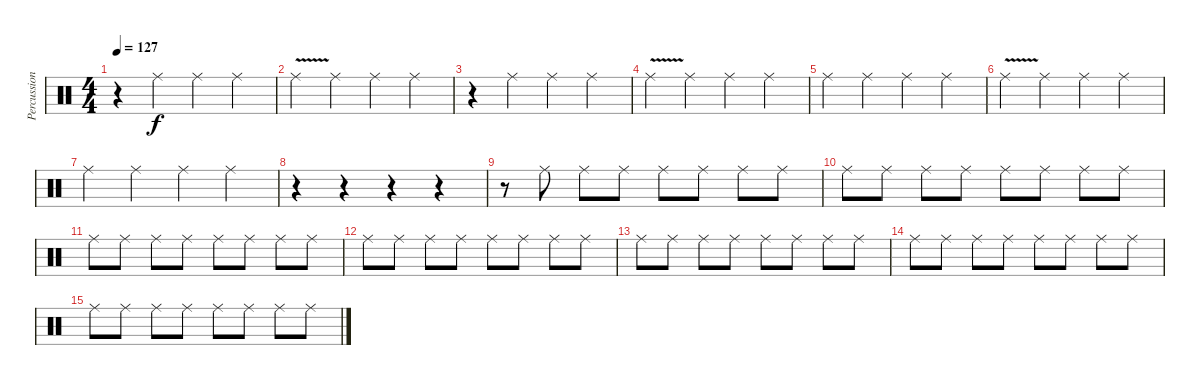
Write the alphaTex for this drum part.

\track ("Percussion" "Percussion") {instrument percussion}
\staff {score}
\articulation defaults
\ts (4 4)
\tempo 127
\clef neutral
\ks c
r.4{dy f} "Ride (middle)".4 "Ride (middle)".4 "Ride (middle)".4 |
"Ride (middle)"{v}.4 "Ride (middle)".4 "Ride (middle)".4 "Ride (middle)".4 |
r.4 "Ride (middle)".4 "Ride (middle)".4 "Ride (middle)".4 |
"Ride (middle)"{v}.4 "Ride (middle)".4 "Ride (middle)".4 "Ride (middle)".4 |
"Ride (middle)".4 "Ride (middle)".4 "Ride (middle)".4 "Ride (middle)".4 |
"Ride (middle)"{v}.4 "Ride (middle)".4 "Ride (middle)".4 "Ride (middle)".4 |
"Ride (middle)".4 "Ride (middle)".4 "Ride (middle)".4 "Ride (middle)".4 |
r.4 r.4 r.4 r.4 |
r.8 "Ride (middle)".8 "Ride (middle)".8 "Ride (middle)".8 "Ride (middle)".8 "Ride (middle)".8 "Ride (middle)".8 "Ride (middle)".8 |
"Ride (middle)".8 "Ride (middle)".8 "Ride (middle)".8 "Ride (middle)".8 "Ride (middle)".8 "Ride (middle)".8 "Ride (middle)".8 "Ride (middle)".8 |
"Ride (middle)".8 "Ride (middle)".8 "Ride (middle)".8 "Ride (middle)".8 "Ride (middle)".8 "Ride (middle)".8 "Ride (middle)".8 "Ride (middle)".8 |
"Ride (middle)".8 "Ride (middle)".8 "Ride (middle)".8 "Ride (middle)".8 "Ride (middle)".8 "Ride (middle)".8 "Ride (middle)".8 "Ride (middle)".8 |
"Ride (middle)".8 "Ride (middle)".8 "Ride (middle)".8 "Ride (middle)".8 "Ride (middle)".8 "Ride (middle)".8 "Ride (middle)".8 "Ride (middle)".8 |
"Ride (middle)".8 "Ride (middle)".8 "Ride (middle)".8 "Ride (middle)".8 "Ride (middle)".8 "Ride (middle)".8 "Ride (middle)".8 "Ride (middle)".8 |
"Ride (middle)".8 "Ride (middle)".8 "Ride (middle)".8 "Ride (middle)".8 "Ride (middle)".8 "Ride (middle)".8 "Ride (middle)".8 "Ride (middle)".8
